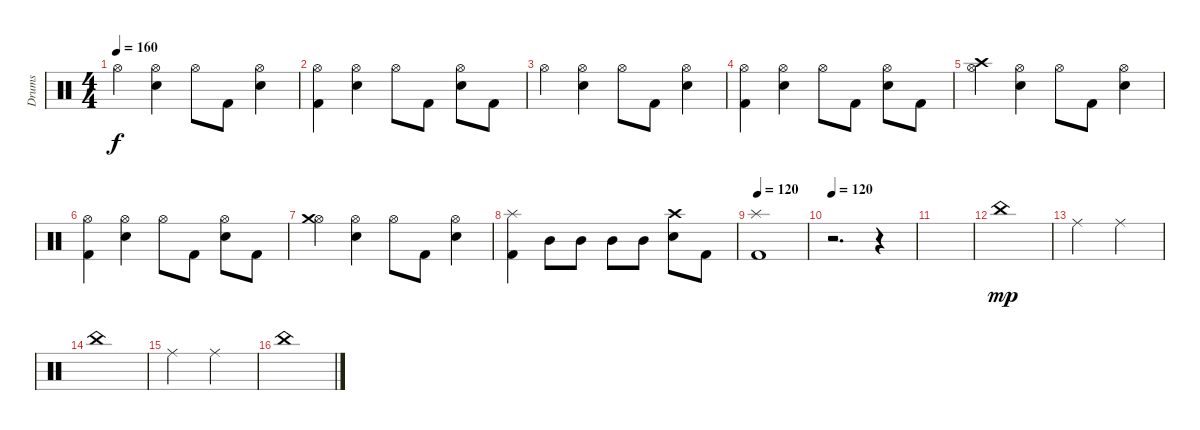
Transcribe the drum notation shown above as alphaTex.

\track ("Drums" "Drums") {instrument percussion}
\staff {score}
\articulation defaults
\ts (4 4)
\tempo 160
\clef neutral
\ks c "Hi-Hat (open)".4{dy f}
("Hi-Hat (open)" "Snare (hit) 2").4 "Hi-Hat (open)".8 "Kick (hit) 2".8 ("Hi-Hat (open)" "Snare (hit) 2").4 |
("Hi-Hat (open)" "Kick (hit) 2").4 ("Hi-Hat (open)" "Snare (hit) 2").4 "Hi-Hat (open)".8 "Kick (hit) 2".8 ("Hi-Hat (open)" "Snare (hit) 2").8 "Kick (hit) 2".8 |
"Hi-Hat (open)".4 ("Hi-Hat (open)" "Snare (hit) 2").4 "Hi-Hat (open)".8 "Kick (hit) 2".8 ("Hi-Hat (open)" "Snare (hit) 2").4 |
("Hi-Hat (open)" "Kick (hit) 2").4 ("Hi-Hat (open)" "Snare (hit) 2").4 "Hi-Hat (open)".8 "Kick (hit) 2".8 ("Hi-Hat (open)" "Snare (hit) 2").8 "Kick (hit) 2".8 |
("Hi-Hat (open)" "Crash high (hit)").4 ("Hi-Hat (open)" "Snare (hit) 2").4 "Hi-Hat (open)".8 "Kick (hit) 2".8 ("Hi-Hat (open)" "Snare (hit) 2").4 |
("Hi-Hat (open)" "Kick (hit) 2").4 ("Hi-Hat (open)" "Snare (hit) 2").4 "Hi-Hat (open)".8 "Kick (hit) 2".8 ("Hi-Hat (open)" "Snare (hit) 2").8 "Kick (hit) 2".8 |
("Hi-Hat (open)" "Crash medium (hit)").4 ("Hi-Hat (open)" "Snare (hit) 2").4 "Hi-Hat (open)".8 "Kick (hit) 2".8 ("Hi-Hat (open)" "Snare (hit) 2").4 |
("Splash (hit)" "Kick (hit) 2").4 "Mid Tom (hit)".8 "Mid Tom (hit)".8 "Mid Tom (hit)".8 "Mid Tom (hit)".8 ("Crash high (hit)" "Snare (hit) 2").8 "Kick (hit) 2".8 |
\tempo 160
\tempo 120
("Kick (hit) 2" "Splash (hit)").1 |
\tempo 120
r.2{d} r.4 |
|
"China (hit)".1{dy mp} |
"Ride (middle)".2 "Ride (middle)".2 |
"China (hit)".1 |
"Ride (middle)".2 "Ride (middle)".2 |
"China (hit)".1
